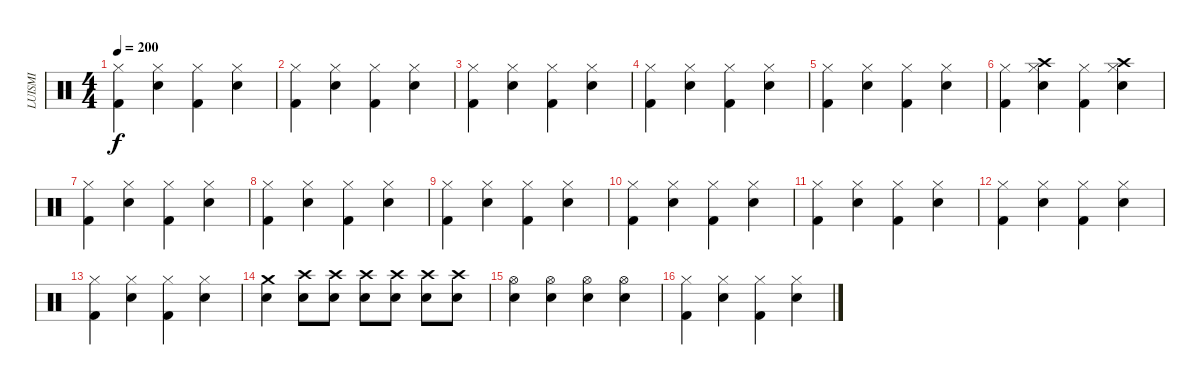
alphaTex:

\track ("LUISMI" "LUISMI") {instrument percussion}
\staff {score}
\articulation defaults
\ts (4 4)
\tempo 200
\clef neutral
\ks c
("Hi-Hat (closed)" "Kick (hit) 2").4{dy f} ("Hi-Hat (closed)" "Snare (hit) 2").4 ("Hi-Hat (closed)" "Kick (hit) 2").4 ("Hi-Hat (closed)" "Snare (hit) 2").4 |
("Hi-Hat (closed)" "Kick (hit) 2").4 ("Hi-Hat (closed)" "Snare (hit) 2").4 ("Hi-Hat (closed)" "Kick (hit) 2").4 ("Hi-Hat (closed)" "Snare (hit) 2").4 |
("Hi-Hat (closed)" "Kick (hit) 2").4 ("Hi-Hat (closed)" "Snare (hit) 2").4 ("Hi-Hat (closed)" "Kick (hit) 2").4 ("Hi-Hat (closed)" "Snare (hit) 2").4 |
("Hi-Hat (closed)" "Kick (hit) 2").4 ("Hi-Hat (closed)" "Snare (hit) 2").4 ("Hi-Hat (closed)" "Kick (hit) 2").4 ("Hi-Hat (closed)" "Snare (hit) 2").4 |
("Hi-Hat (closed)" "Kick (hit) 2").4 ("Hi-Hat (closed)" "Snare (hit) 2").4 ("Hi-Hat (closed)" "Kick (hit) 2").4 ("Hi-Hat (closed)" "Snare (hit) 2").4 |
("Hi-Hat (closed)" "Kick (hit) 2").4 ("Hi-Hat (closed)" "Snare (hit) 2" "Crash high (hit)").4 ("Hi-Hat (closed)" "Kick (hit) 2").4 ("Hi-Hat (closed)" "Snare (hit) 2" "Crash high (hit)").4 |
("Hi-Hat (closed)" "Kick (hit) 2").4 ("Hi-Hat (closed)" "Snare (hit) 2").4 ("Hi-Hat (closed)" "Kick (hit) 2").4 ("Hi-Hat (closed)" "Snare (hit) 2").4 |
("Hi-Hat (closed)" "Kick (hit) 2").4 ("Hi-Hat (closed)" "Snare (hit) 2").4 ("Hi-Hat (closed)" "Kick (hit) 2").4 ("Hi-Hat (closed)" "Snare (hit) 2").4 |
("Hi-Hat (closed)" "Kick (hit) 2").4 ("Hi-Hat (closed)" "Snare (hit) 2").4 ("Hi-Hat (closed)" "Kick (hit) 2").4 ("Hi-Hat (closed)" "Snare (hit) 2").4 |
("Hi-Hat (closed)" "Kick (hit) 2").4 ("Hi-Hat (closed)" "Snare (hit) 2").4 ("Hi-Hat (closed)" "Kick (hit) 2").4 ("Hi-Hat (closed)" "Snare (hit) 2").4 |
("Hi-Hat (closed)" "Kick (hit) 2").4 ("Hi-Hat (closed)" "Snare (hit) 2").4 ("Hi-Hat (closed)" "Kick (hit) 2").4 ("Hi-Hat (closed)" "Snare (hit) 2").4 |
("Hi-Hat (closed)" "Kick (hit) 2").4 ("Hi-Hat (closed)" "Snare (hit) 2").4 ("Hi-Hat (closed)" "Kick (hit) 2").4 ("Hi-Hat (closed)" "Snare (hit) 2").4 |
("Hi-Hat (closed)" "Kick (hit) 2").4 ("Hi-Hat (closed)" "Snare (hit) 2").4 ("Hi-Hat (closed)" "Kick (hit) 2").4 ("Hi-Hat (closed)" "Snare (hit) 2").4 |
("Electric Snare (hit)" "Crash medium (hit)").4 ("Snare (hit) 2" "Crash high (hit)").8 ("Snare (hit) 2" "Crash high (hit)").8 ("Snare (hit) 2" "Crash high (hit)").8 ("Snare (hit) 2" "Crash high (hit)").8 ("Snare (hit) 2" "Crash high (hit)").8 ("Snare (hit) 2" "Crash high (hit)").8 |
("Snare (hit) 2" "Hi-Hat (open)").4 ("Snare (hit) 2" "Hi-Hat (open)").4 ("Snare (hit) 2" "Hi-Hat (open)").4 ("Snare (hit) 2" "Hi-Hat (open)").4 |
("Hi-Hat (closed)" "Kick (hit) 2").4 ("Hi-Hat (closed)" "Snare (hit) 2").4 ("Hi-Hat (closed)" "Kick (hit) 2").4 ("Hi-Hat (closed)" "Snare (hit) 2").4
